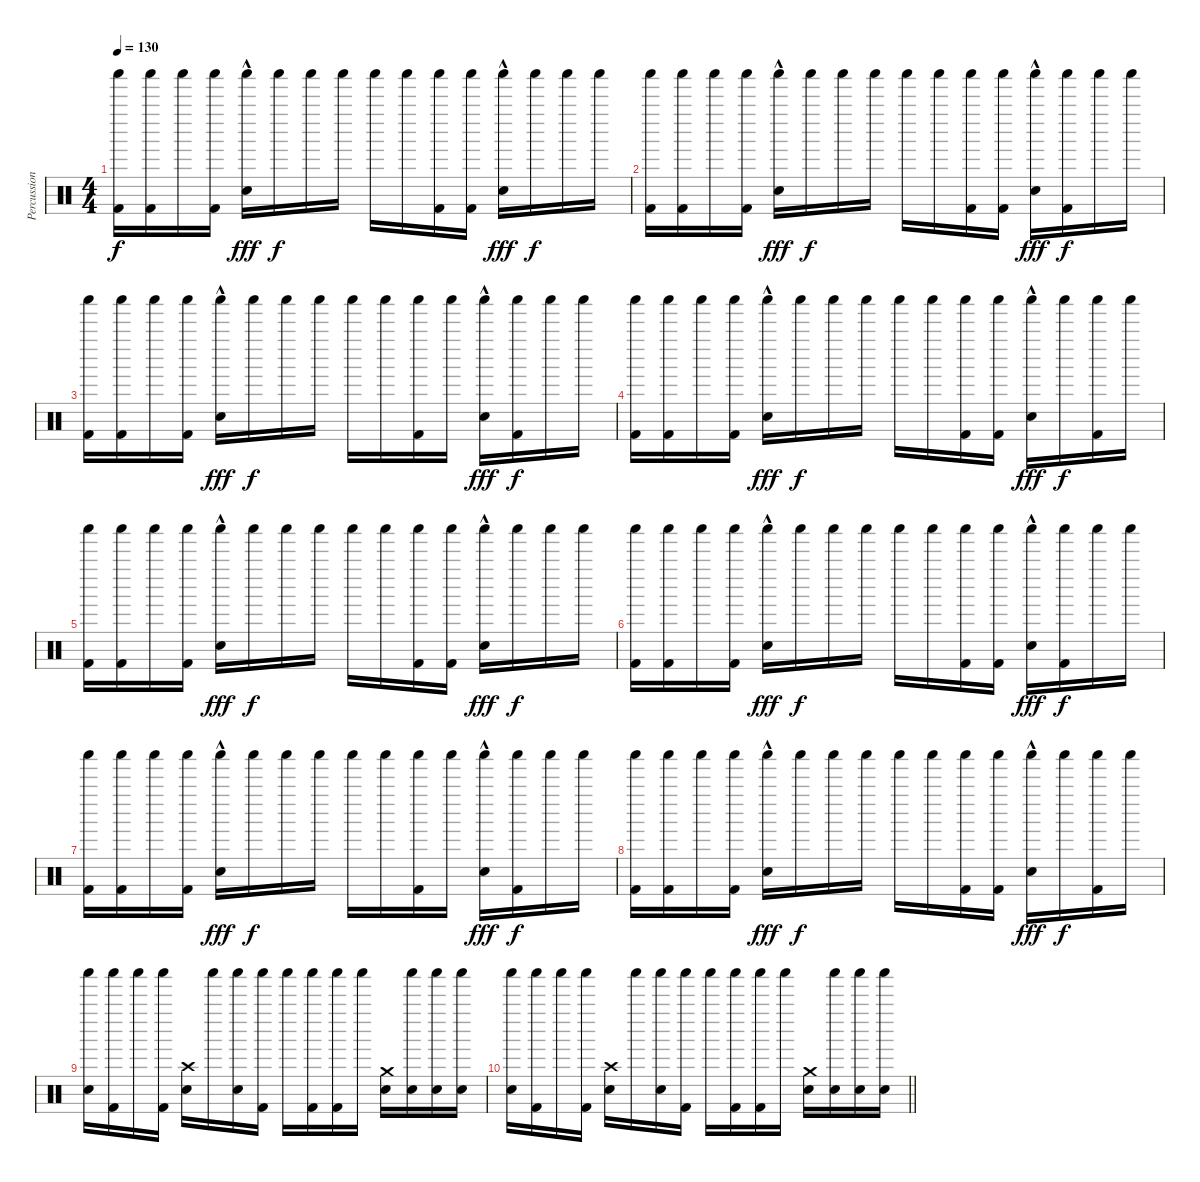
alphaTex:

\track ("Percussion" "Percussion") {instrument percussion}
\staff {score}
\articulation defaults
\ts (4 4)
\tempo 130
\clef neutral
\ks c
("Shaker (hit)" "Kick (hit) 2").16{dy f} ("Shaker (hit)" "Kick (hit) 2").16 "Shaker (hit)".16 ("Shaker (hit)" "Kick (hit) 2").16 ("Shaker (hit)" "Snare (hit) 2"{hac}).16{dy fff} "Shaker (hit)".16{dy f} "Shaker (hit)".16 "Shaker (hit)".16 "Shaker (hit)".16 "Shaker (hit)".16 ("Shaker (hit)" "Kick (hit) 2").16 ("Shaker (hit)" "Kick (hit) 2").16 ("Shaker (hit)" "Snare (hit) 2"{hac}).16{dy fff} "Shaker (hit)".16{dy f} "Shaker (hit)".16 "Shaker (hit)".16 |
("Shaker (hit)" "Kick (hit) 2").16 ("Shaker (hit)" "Kick (hit) 2").16 "Shaker (hit)".16 ("Shaker (hit)" "Kick (hit) 2").16 ("Shaker (hit)" "Snare (hit) 2"{hac}).16{dy fff} "Shaker (hit)".16{dy f} "Shaker (hit)".16 "Shaker (hit)".16 "Shaker (hit)".16 "Shaker (hit)".16 ("Shaker (hit)" "Kick (hit) 2").16 ("Shaker (hit)" "Kick (hit) 2").16 ("Shaker (hit)" "Snare (hit) 2"{hac}).16{dy fff} ("Shaker (hit)" "Kick (hit) 2").16{dy f} "Shaker (hit)".16 "Shaker (hit)".16 |
("Shaker (hit)" "Kick (hit) 2").16 ("Shaker (hit)" "Kick (hit) 2").16 "Shaker (hit)".16 ("Shaker (hit)" "Kick (hit) 2").16 ("Shaker (hit)" "Snare (hit) 2"{hac}).16{dy fff} "Shaker (hit)".16{dy f} "Shaker (hit)".16 "Shaker (hit)".16 "Shaker (hit)".16 "Shaker (hit)".16 ("Shaker (hit)" "Kick (hit) 2").16 "Shaker (hit)".16 ("Shaker (hit)" "Snare (hit) 2"{hac}).16{dy fff} ("Shaker (hit)" "Kick (hit) 2").16{dy f} "Shaker (hit)".16 "Shaker (hit)".16 |
("Shaker (hit)" "Kick (hit) 2").16 ("Shaker (hit)" "Kick (hit) 2").16 "Shaker (hit)".16 ("Shaker (hit)" "Kick (hit) 2").16 ("Shaker (hit)" "Snare (hit) 2"{hac}).16{dy fff} "Shaker (hit)".16{dy f} "Shaker (hit)".16 "Shaker (hit)".16 "Shaker (hit)".16 "Shaker (hit)".16 ("Shaker (hit)" "Kick (hit) 2").16 ("Shaker (hit)" "Kick (hit) 2").16 ("Shaker (hit)" "Snare (hit) 2"{hac}).16{dy fff} "Shaker (hit)".16{dy f} ("Shaker (hit)" "Kick (hit) 2").16 "Shaker (hit)".16 |
("Shaker (hit)" "Kick (hit) 2").16 ("Shaker (hit)" "Kick (hit) 2").16 "Shaker (hit)".16 ("Shaker (hit)" "Kick (hit) 2").16 ("Shaker (hit)" "Snare (hit) 2"{hac}).16{dy fff} "Shaker (hit)".16{dy f} "Shaker (hit)".16 "Shaker (hit)".16 "Shaker (hit)".16 "Shaker (hit)".16 ("Shaker (hit)" "Kick (hit) 2").16 ("Shaker (hit)" "Kick (hit) 2").16 ("Shaker (hit)" "Snare (hit) 2"{hac}).16{dy fff} "Shaker (hit)".16{dy f} "Shaker (hit)".16 "Shaker (hit)".16 |
("Shaker (hit)" "Kick (hit) 2").16 ("Shaker (hit)" "Kick (hit) 2").16 "Shaker (hit)".16 ("Shaker (hit)" "Kick (hit) 2").16 ("Shaker (hit)" "Snare (hit) 2"{hac}).16{dy fff} "Shaker (hit)".16{dy f} "Shaker (hit)".16 "Shaker (hit)".16 "Shaker (hit)".16 "Shaker (hit)".16 ("Shaker (hit)" "Kick (hit) 2").16 ("Shaker (hit)" "Kick (hit) 2").16 ("Shaker (hit)" "Snare (hit) 2"{hac}).16{dy fff} ("Shaker (hit)" "Kick (hit) 2").16{dy f} "Shaker (hit)".16 "Shaker (hit)".16 |
("Shaker (hit)" "Kick (hit) 2").16 ("Shaker (hit)" "Kick (hit) 2").16 "Shaker (hit)".16 ("Shaker (hit)" "Kick (hit) 2").16 ("Shaker (hit)" "Snare (hit) 2"{hac}).16{dy fff} "Shaker (hit)".16{dy f} "Shaker (hit)".16 "Shaker (hit)".16 "Shaker (hit)".16 "Shaker (hit)".16 ("Shaker (hit)" "Kick (hit) 2").16 "Shaker (hit)".16 ("Shaker (hit)" "Snare (hit) 2"{hac}).16{dy fff} ("Shaker (hit)" "Kick (hit) 2").16{dy f} "Shaker (hit)".16 "Shaker (hit)".16 |
("Shaker (hit)" "Kick (hit) 2").16 ("Shaker (hit)" "Kick (hit) 2").16 "Shaker (hit)".16 ("Shaker (hit)" "Kick (hit) 2").16 ("Shaker (hit)" "Snare (hit) 2"{hac}).16{dy fff} "Shaker (hit)".16{dy f} "Shaker (hit)".16 "Shaker (hit)".16 "Shaker (hit)".16 "Shaker (hit)".16 ("Shaker (hit)" "Kick (hit) 2").16 ("Shaker (hit)" "Kick (hit) 2").16 ("Shaker (hit)" "Snare (hit) 2"{hac}).16{dy fff} "Shaker (hit)".16{dy f} ("Shaker (hit)" "Kick (hit) 2").16 "Shaker (hit)".16 |
("Shaker (hit)" "Snare (hit) 2").16 ("Shaker (hit)" "Kick (hit) 2").16 "Shaker (hit)".16 ("Shaker (hit)" "Kick (hit) 2").16 ("Crash high (hit)" "Snare (hit) 2").16 "Shaker (hit)".16 ("Shaker (hit)" "Snare (hit) 2").16 ("Shaker (hit)" "Kick (hit) 2").16 "Shaker (hit)".16 ("Shaker (hit)" "Kick (hit) 2").16 ("Shaker (hit)" "Kick (hit) 2").16 "Shaker (hit)".16 ("Crash medium (hit)" "Snare (hit) 2").16 ("Shaker (hit)" "Snare (hit) 2").16 ("Shaker (hit)" "Snare (hit) 2").16 ("Shaker (hit)" "Snare (hit) 2").16 |
\barLineRight lightlight
("Shaker (hit)" "Snare (hit) 2").16 ("Shaker (hit)" "Kick (hit) 2").16 "Shaker (hit)".16 ("Shaker (hit)" "Kick (hit) 2").16 ("Crash high (hit)" "Snare (hit) 2").16 "Shaker (hit)".16 ("Shaker (hit)" "Snare (hit) 2").16 ("Shaker (hit)" "Kick (hit) 2").16 "Shaker (hit)".16 ("Shaker (hit)" "Kick (hit) 2").16 ("Shaker (hit)" "Kick (hit) 2").16 "Shaker (hit)".16 ("Crash medium (hit)" "Snare (hit) 2").16 ("Shaker (hit)" "Snare (hit) 2").16 ("Shaker (hit)" "Snare (hit) 2").16 ("Shaker (hit)" "Snare (hit) 2").16
